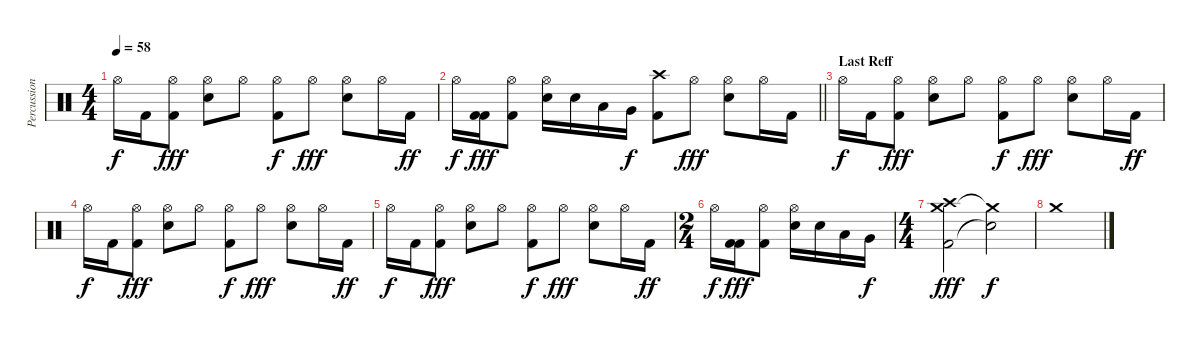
\track ("Percussion" "Percussion") {instrument percussion}
\staff {score}
\articulation defaults
\ts (4 4)
\tempo 58
\clef neutral
\ks c "Hi-Hat (open)".16{dy f} "Kick (hit) 2".16
("Hi-Hat (open)" "Kick (hit) 2").8{dy fff} ("Electric Snare (hit)" "Hi-Hat (open)").8 "Hi-Hat (open)".8 ("Kick (hit) 2" "Hi-Hat (open)").8{dy f} "Hi-Hat (open)".8{dy fff} ("Electric Snare (hit)" "Hi-Hat (open)").8 "Hi-Hat (open)".16 "Kick (hit) 2".16{dy ff} |
\barLineRight lightlight "Hi-Hat (open)".16{dy f}
("Kick (hit) 2" "Kick (hit) 2").16{dy fff} ("Kick (hit) 2" "Hi-Hat (open)").8 ("Hi-Hat (open)" "Electric Snare (hit)").16 "Electric Snare (hit)".16 "Low Tom (hit)".16 "Very Low Tom (hit)".16{dy f} ("Kick (hit) 2" "Crash high (hit)").8 "Hi-Hat (open)".8{dy fff} ("Hi-Hat (open)" "Electric Snare (hit)").8 "Hi-Hat (open)".16 "Kick (hit) 2".16 |
\section ("" "Last Reff")
"Hi-Hat (open)".16{dy f} "Kick (hit) 2".16 ("Hi-Hat (open)" "Kick (hit) 2").8{dy fff} ("Electric Snare (hit)" "Hi-Hat (open)").8 "Hi-Hat (open)".8 ("Kick (hit) 2" "Hi-Hat (open)").8{dy f} "Hi-Hat (open)".8{dy fff} ("Electric Snare (hit)" "Hi-Hat (open)").8 "Hi-Hat (open)".16 "Kick (hit) 2".16{dy ff} |
"Hi-Hat (open)".16{dy f} "Kick (hit) 2".16 ("Hi-Hat (open)" "Kick (hit) 2").8{dy fff} ("Electric Snare (hit)" "Hi-Hat (open)").8 "Hi-Hat (open)".8 ("Kick (hit) 2" "Hi-Hat (open)").8{dy f} "Hi-Hat (open)".8{dy fff} ("Electric Snare (hit)" "Hi-Hat (open)").8 "Hi-Hat (open)".16 "Kick (hit) 2".16{dy ff} |
"Hi-Hat (open)".16{dy f} "Kick (hit) 2".16 ("Hi-Hat (open)" "Kick (hit) 2").8{dy fff} ("Electric Snare (hit)" "Hi-Hat (open)").8 "Hi-Hat (open)".8 ("Kick (hit) 2" "Hi-Hat (open)").8{dy f} "Hi-Hat (open)".8{dy fff} ("Electric Snare (hit)" "Hi-Hat (open)").8 "Hi-Hat (open)".16 "Kick (hit) 2".16{dy ff} |
\ts (2 4)
"Hi-Hat (open)".16{dy f} ("Kick (hit) 2" "Kick (hit) 2").16{dy fff} ("Kick (hit) 2" "Hi-Hat (open)").8 ("Hi-Hat (open)" "Electric Snare (hit)").16 "Electric Snare (hit)".16 "Low Tom (hit)".16 "Very Low Tom (hit)".16{dy f} |
\ts (4 4)
("Kick (hit) 2" "Crash medium (hit)" "Crash high (hit)").2{dy fff} ("Snare (hit)"{t} "Crash medium (hit)"{t}).2{dy f} |
"Crash medium (hit)".1{volume 7}
